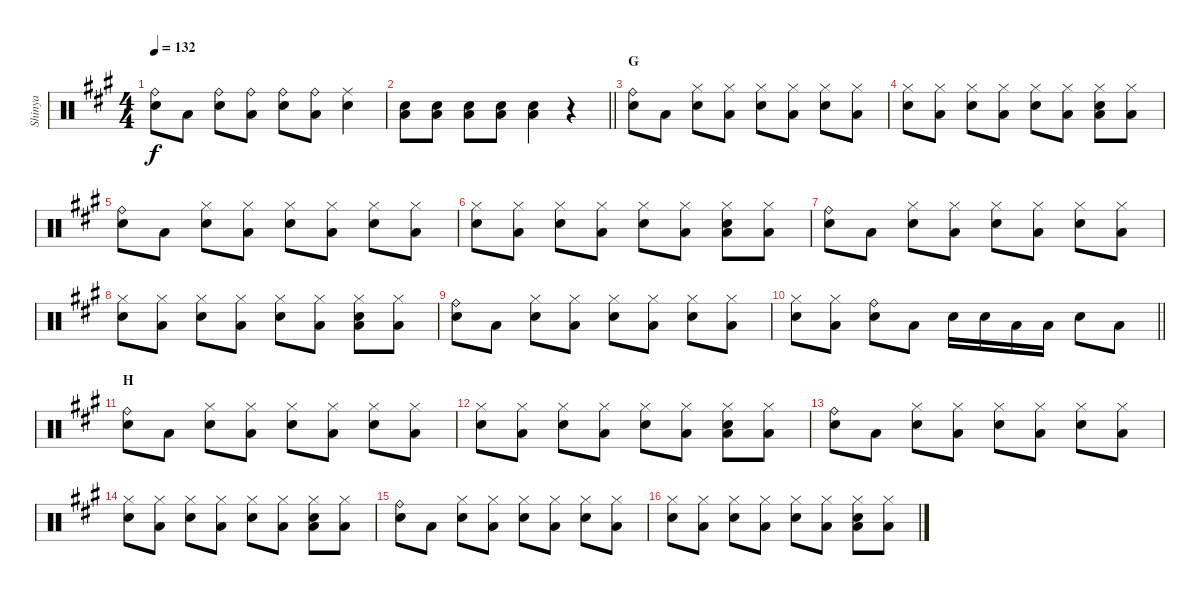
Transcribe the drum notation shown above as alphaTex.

\track ("Shinya" "Shinya") {instrument percussion}
\staff {score}
\articulation defaults
\ts (4 4)
\tempo 132
\clef neutral
\ks a
("Ride (bell)" "Snare (hit) 2").8{dy f} "Low Floor Tom (hit)".8 ("Ride (bell)" "Snare (hit) 2").8 ("Low Floor Tom (hit)" "Ride (bell)").8 ("Ride (bell)" "Snare (hit) 2").8 ("Low Floor Tom (hit)" "Ride (bell)").8 ("Ride (middle)" "Snare (hit) 2").4 |
\barLineRight lightlight
("Low Floor Tom (hit)" "Snare (hit) 2").8 ("Low Floor Tom (hit)" "Snare (hit) 2").8 ("Low Floor Tom (hit)" "Snare (hit) 2").8 ("Low Floor Tom (hit)" "Snare (hit) 2").8 ("Low Floor Tom (hit)" "Snare (hit) 2").4 r.4 |
\section ("" "G")
("Ride (bell)" "Snare (hit) 2").8 "Low Floor Tom (hit)".8 ("Hi-Hat (closed)" "Snare (hit) 2").8 ("Low Floor Tom (hit)" "Hi-Hat (closed)").8 ("Hi-Hat (closed)" "Snare (hit) 2").8 ("Low Floor Tom (hit)" "Hi-Hat (closed)").8 ("Hi-Hat (closed)" "Snare (hit) 2").8 ("Low Floor Tom (hit)" "Hi-Hat (closed)").8 |
("Hi-Hat (closed)" "Snare (hit) 2").8 ("Low Floor Tom (hit)" "Hi-Hat (closed)").8 ("Hi-Hat (closed)" "Snare (hit) 2").8 ("Low Floor Tom (hit)" "Hi-Hat (closed)").8 ("Hi-Hat (closed)" "Snare (hit) 2").8 ("Low Floor Tom (hit)" "Hi-Hat (closed)").8 ("Low Floor Tom (hit)" "Hi-Hat (closed)" "Snare (hit) 2").8 ("Low Floor Tom (hit)" "Hi-Hat (closed)").8 |
("Ride (bell)" "Snare (hit) 2").8 "Low Floor Tom (hit)".8 ("Hi-Hat (closed)" "Snare (hit) 2").8 ("Low Floor Tom (hit)" "Hi-Hat (closed)").8 ("Hi-Hat (closed)" "Snare (hit) 2").8 ("Low Floor Tom (hit)" "Hi-Hat (closed)").8 ("Hi-Hat (closed)" "Snare (hit) 2").8 ("Low Floor Tom (hit)" "Hi-Hat (closed)").8 |
("Hi-Hat (closed)" "Snare (hit) 2").8 ("Low Floor Tom (hit)" "Hi-Hat (closed)").8 ("Hi-Hat (closed)" "Snare (hit) 2").8 ("Low Floor Tom (hit)" "Hi-Hat (closed)").8 ("Hi-Hat (closed)" "Snare (hit) 2").8 ("Low Floor Tom (hit)" "Hi-Hat (closed)").8 ("Low Floor Tom (hit)" "Hi-Hat (closed)" "Snare (hit) 2").8 ("Low Floor Tom (hit)" "Hi-Hat (closed)").8 |
("Ride (bell)" "Snare (hit) 2").8 "Low Floor Tom (hit)".8 ("Hi-Hat (closed)" "Snare (hit) 2").8 ("Low Floor Tom (hit)" "Hi-Hat (closed)").8 ("Hi-Hat (closed)" "Snare (hit) 2").8 ("Low Floor Tom (hit)" "Hi-Hat (closed)").8 ("Hi-Hat (closed)" "Snare (hit) 2").8 ("Low Floor Tom (hit)" "Hi-Hat (closed)").8 |
("Hi-Hat (closed)" "Snare (hit) 2").8 ("Low Floor Tom (hit)" "Hi-Hat (closed)").8 ("Hi-Hat (closed)" "Snare (hit) 2").8 ("Low Floor Tom (hit)" "Hi-Hat (closed)").8 ("Hi-Hat (closed)" "Snare (hit) 2").8 ("Low Floor Tom (hit)" "Hi-Hat (closed)").8 ("Low Floor Tom (hit)" "Hi-Hat (closed)" "Snare (hit) 2").8 ("Low Floor Tom (hit)" "Hi-Hat (closed)").8 |
("Ride (bell)" "Snare (hit) 2").8 "Low Floor Tom (hit)".8 ("Hi-Hat (closed)" "Snare (hit) 2").8 ("Low Floor Tom (hit)" "Hi-Hat (closed)").8 ("Hi-Hat (closed)" "Snare (hit) 2").8 ("Low Floor Tom (hit)" "Hi-Hat (closed)").8 ("Hi-Hat (closed)" "Snare (hit) 2").8 ("Low Floor Tom (hit)" "Hi-Hat (closed)").8 |
\barLineRight lightlight
("Hi-Hat (closed)" "Snare (hit) 2").8 ("Low Floor Tom (hit)" "Hi-Hat (closed)").8 ("Ride (bell)" "Snare (hit) 2").8 "Low Floor Tom (hit)".8 "Snare (hit) 2".16 "Snare (hit) 2".16 "Low Floor Tom (hit)".16 "Low Floor Tom (hit)".16 "Snare (hit) 2".8 "Low Floor Tom (hit)".8 |
\section ("" "H")
("Ride (bell)" "Snare (hit) 2").8 "Low Floor Tom (hit)".8 ("Hi-Hat (closed)" "Snare (hit) 2").8 ("Low Floor Tom (hit)" "Hi-Hat (closed)").8 ("Hi-Hat (closed)" "Snare (hit) 2").8 ("Low Floor Tom (hit)" "Hi-Hat (closed)").8 ("Hi-Hat (closed)" "Snare (hit) 2").8 ("Low Floor Tom (hit)" "Hi-Hat (closed)").8 |
("Hi-Hat (closed)" "Snare (hit) 2").8 ("Low Floor Tom (hit)" "Hi-Hat (closed)").8 ("Hi-Hat (closed)" "Snare (hit) 2").8 ("Low Floor Tom (hit)" "Hi-Hat (closed)").8 ("Hi-Hat (closed)" "Snare (hit) 2").8 ("Low Floor Tom (hit)" "Hi-Hat (closed)").8 ("Low Floor Tom (hit)" "Hi-Hat (closed)" "Snare (hit) 2").8 ("Low Floor Tom (hit)" "Hi-Hat (closed)").8 |
("Ride (bell)" "Snare (hit) 2").8 "Low Floor Tom (hit)".8 ("Hi-Hat (closed)" "Snare (hit) 2").8 ("Low Floor Tom (hit)" "Hi-Hat (closed)").8 ("Hi-Hat (closed)" "Snare (hit) 2").8 ("Low Floor Tom (hit)" "Hi-Hat (closed)").8 ("Hi-Hat (closed)" "Snare (hit) 2").8 ("Low Floor Tom (hit)" "Hi-Hat (closed)").8 |
("Hi-Hat (closed)" "Snare (hit) 2").8 ("Low Floor Tom (hit)" "Hi-Hat (closed)").8 ("Hi-Hat (closed)" "Snare (hit) 2").8 ("Low Floor Tom (hit)" "Hi-Hat (closed)").8 ("Hi-Hat (closed)" "Snare (hit) 2").8 ("Low Floor Tom (hit)" "Hi-Hat (closed)").8 ("Low Floor Tom (hit)" "Hi-Hat (closed)" "Snare (hit) 2").8 ("Low Floor Tom (hit)" "Hi-Hat (closed)").8 |
("Ride (bell)" "Snare (hit) 2").8 "Low Floor Tom (hit)".8 ("Hi-Hat (closed)" "Snare (hit) 2").8 ("Low Floor Tom (hit)" "Hi-Hat (closed)").8 ("Hi-Hat (closed)" "Snare (hit) 2").8 ("Low Floor Tom (hit)" "Hi-Hat (closed)").8 ("Hi-Hat (closed)" "Snare (hit) 2").8 ("Low Floor Tom (hit)" "Hi-Hat (closed)").8 |
("Hi-Hat (closed)" "Snare (hit) 2").8 ("Low Floor Tom (hit)" "Hi-Hat (closed)").8 ("Hi-Hat (closed)" "Snare (hit) 2").8 ("Low Floor Tom (hit)" "Hi-Hat (closed)").8 ("Hi-Hat (closed)" "Snare (hit) 2").8 ("Low Floor Tom (hit)" "Hi-Hat (closed)").8 ("Low Floor Tom (hit)" "Hi-Hat (closed)" "Snare (hit) 2").8 ("Low Floor Tom (hit)" "Hi-Hat (closed)").8
